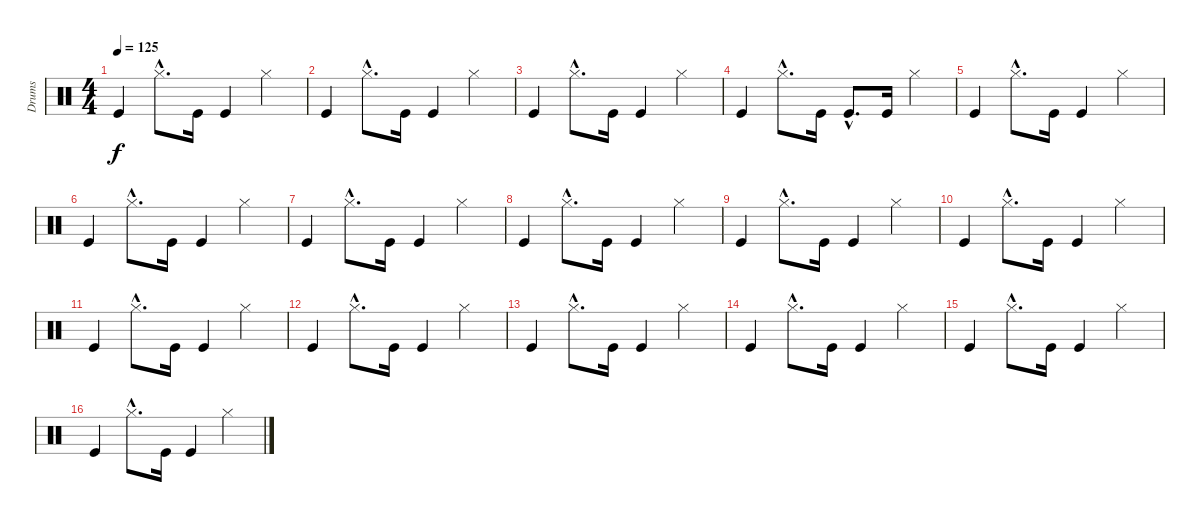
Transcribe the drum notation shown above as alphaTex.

\track ("Drums" "Drums") {instrument percussion}
\staff {score}
\articulation defaults
\ts (4 4)
\tempo 125
\clef neutral
\ks c "Kick (hit)".4{dy f} "Hi-Hat (closed)"{hac}.8{d} "Kick (hit)".16 "Kick (hit)".4 "Hi-Hat (closed)".4
|
"Kick (hit)".4 "Hi-Hat (closed)"{hac}.8{d} "Kick (hit)".16 "Kick (hit)".4 "Hi-Hat (closed)".4 |
"Kick (hit)".4 "Hi-Hat (closed)"{hac}.8{d} "Kick (hit)".16 "Kick (hit)".4 "Hi-Hat (closed)".4 |
"Kick (hit)".4 "Hi-Hat (closed)"{hac}.8{d} "Kick (hit)".16 "Kick (hit)"{hac}.8{d} "Kick (hit)".16 "Hi-Hat (closed)".4 |
"Kick (hit)".4 "Hi-Hat (closed)"{hac}.8{d} "Kick (hit)".16 "Kick (hit)".4 "Hi-Hat (closed)".4 |
"Kick (hit)".4 "Hi-Hat (closed)"{hac}.8{d} "Kick (hit)".16 "Kick (hit)".4 "Hi-Hat (closed)".4 |
"Kick (hit)".4 "Hi-Hat (closed)"{hac}.8{d} "Kick (hit)".16 "Kick (hit)".4 "Hi-Hat (closed)".4 |
"Kick (hit)".4 "Hi-Hat (closed)"{hac}.8{d} "Kick (hit)".16 "Kick (hit)".4 "Hi-Hat (closed)".4 |
"Kick (hit)".4 "Hi-Hat (closed)"{hac}.8{d} "Kick (hit)".16 "Kick (hit)".4 "Hi-Hat (closed)".4 |
"Kick (hit)".4 "Hi-Hat (closed)"{hac}.8{d} "Kick (hit)".16 "Kick (hit)".4 "Hi-Hat (closed)".4 |
"Kick (hit)".4 "Hi-Hat (closed)"{hac}.8{d} "Kick (hit)".16 "Kick (hit)".4 "Hi-Hat (closed)".4 |
"Kick (hit)".4 "Hi-Hat (closed)"{hac}.8{d} "Kick (hit)".16 "Kick (hit)".4 "Hi-Hat (closed)".4 |
"Kick (hit)".4 "Hi-Hat (closed)"{hac}.8{d} "Kick (hit)".16 "Kick (hit)".4 "Hi-Hat (closed)".4 |
"Kick (hit)".4 "Hi-Hat (closed)"{hac}.8{d} "Kick (hit)".16 "Kick (hit)".4 "Hi-Hat (closed)".4 |
"Kick (hit)".4 "Hi-Hat (closed)"{hac}.8{d} "Kick (hit)".16 "Kick (hit)".4 "Hi-Hat (closed)".4 |
"Kick (hit)".4 "Hi-Hat (closed)"{hac}.8{d} "Kick (hit)".16 "Kick (hit)".4 "Hi-Hat (closed)".4
